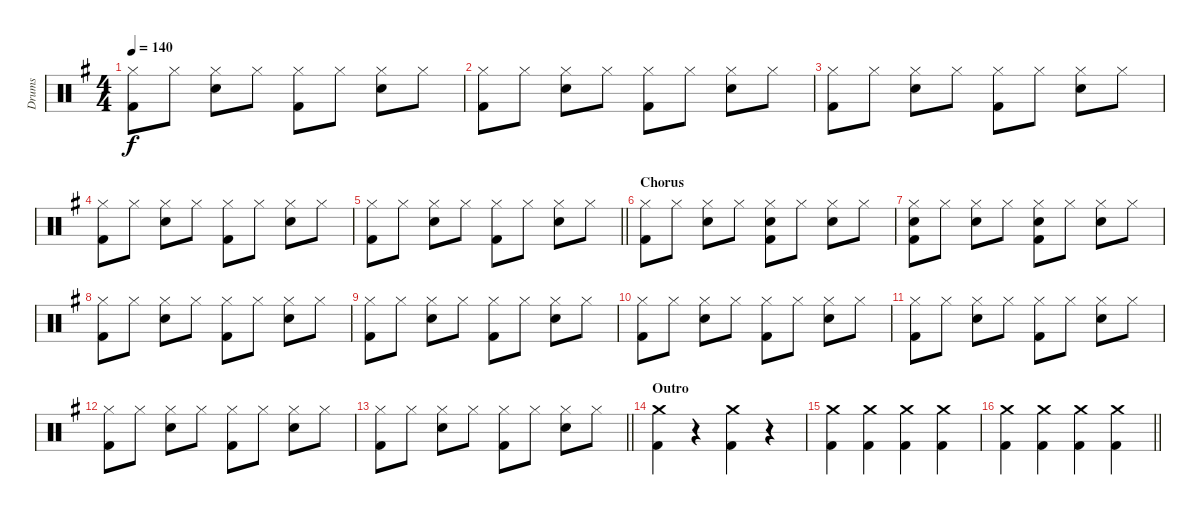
\track ("Drums" "Drums") {instrument percussion}
\staff {score}
\articulation defaults
\ts (4 4)
\tempo 140
\clef neutral
\ks g
("Hi-Hat (closed)" "Kick (hit) 2").8{dy f} "Hi-Hat (closed)".8 ("Hi-Hat (closed)" "Snare (hit) 2").8 "Hi-Hat (closed)".8 ("Hi-Hat (closed)" "Kick (hit) 2").8 "Hi-Hat (closed)".8 ("Hi-Hat (closed)" "Snare (hit) 2").8 "Hi-Hat (closed)".8 |
("Hi-Hat (closed)" "Kick (hit) 2").8 "Hi-Hat (closed)".8 ("Hi-Hat (closed)" "Snare (hit) 2").8 "Hi-Hat (closed)".8 ("Hi-Hat (closed)" "Kick (hit) 2").8 "Hi-Hat (closed)".8 ("Hi-Hat (closed)" "Snare (hit) 2").8 "Hi-Hat (closed)".8 |
("Hi-Hat (closed)" "Kick (hit) 2").8 "Hi-Hat (closed)".8 ("Hi-Hat (closed)" "Snare (hit) 2").8 "Hi-Hat (closed)".8 ("Hi-Hat (closed)" "Kick (hit) 2").8 "Hi-Hat (closed)".8 ("Hi-Hat (closed)" "Snare (hit) 2").8 "Hi-Hat (closed)".8 |
("Hi-Hat (closed)" "Kick (hit) 2").8 "Hi-Hat (closed)".8 ("Hi-Hat (closed)" "Snare (hit) 2").8 "Hi-Hat (closed)".8 ("Hi-Hat (closed)" "Kick (hit) 2").8 "Hi-Hat (closed)".8 ("Hi-Hat (closed)" "Snare (hit) 2").8 "Hi-Hat (closed)".8 |
\barLineRight lightlight
("Hi-Hat (closed)" "Kick (hit) 2").8 "Hi-Hat (closed)".8 ("Hi-Hat (closed)" "Snare (hit) 2").8 "Hi-Hat (closed)".8 ("Hi-Hat (closed)" "Kick (hit) 2").8 "Hi-Hat (closed)".8 ("Hi-Hat (closed)" "Snare (hit) 2").8 "Hi-Hat (closed)".8 |
\section ("" "Chorus")
("Hi-Hat (closed)" "Kick (hit) 2").8 "Hi-Hat (closed)".8 ("Hi-Hat (closed)" "Snare (hit) 2").8 "Hi-Hat (closed)".8 ("Hi-Hat (closed)" "Snare (hit) 2" "Kick (hit) 2").8 "Hi-Hat (closed)".8 ("Hi-Hat (closed)" "Snare (hit) 2").8 "Hi-Hat (closed)".8 |
("Hi-Hat (closed)" "Snare (hit) 2" "Kick (hit) 2").8 "Hi-Hat (closed)".8 ("Hi-Hat (closed)" "Snare (hit) 2").8 "Hi-Hat (closed)".8 ("Hi-Hat (closed)" "Snare (hit) 2" "Kick (hit) 2").8 "Hi-Hat (closed)".8 ("Hi-Hat (closed)" "Snare (hit) 2").8 "Hi-Hat (closed)".8 |
("Hi-Hat (closed)" "Kick (hit) 2").8 "Hi-Hat (closed)".8 ("Hi-Hat (closed)" "Snare (hit) 2").8 "Hi-Hat (closed)".8 ("Hi-Hat (closed)" "Kick (hit) 2").8 "Hi-Hat (closed)".8 ("Hi-Hat (closed)" "Snare (hit) 2").8 "Hi-Hat (closed)".8 |
("Hi-Hat (closed)" "Kick (hit) 2").8 "Hi-Hat (closed)".8 ("Hi-Hat (closed)" "Snare (hit) 2").8 "Hi-Hat (closed)".8 ("Hi-Hat (closed)" "Kick (hit) 2").8 "Hi-Hat (closed)".8 ("Hi-Hat (closed)" "Snare (hit) 2").8 "Hi-Hat (closed)".8 |
("Hi-Hat (closed)" "Kick (hit) 2").8 "Hi-Hat (closed)".8 ("Hi-Hat (closed)" "Snare (hit) 2").8 "Hi-Hat (closed)".8 ("Hi-Hat (closed)" "Kick (hit) 2").8 "Hi-Hat (closed)".8 ("Hi-Hat (closed)" "Snare (hit) 2").8 "Hi-Hat (closed)".8 |
("Hi-Hat (closed)" "Kick (hit) 2").8 "Hi-Hat (closed)".8 ("Hi-Hat (closed)" "Snare (hit) 2").8 "Hi-Hat (closed)".8 ("Hi-Hat (closed)" "Kick (hit) 2").8 "Hi-Hat (closed)".8 ("Hi-Hat (closed)" "Snare (hit) 2").8 "Hi-Hat (closed)".8 |
("Hi-Hat (closed)" "Kick (hit) 2").8 "Hi-Hat (closed)".8 ("Hi-Hat (closed)" "Snare (hit) 2").8 "Hi-Hat (closed)".8 ("Hi-Hat (closed)" "Kick (hit) 2").8 "Hi-Hat (closed)".8 ("Hi-Hat (closed)" "Snare (hit) 2").8 "Hi-Hat (closed)".8 |
\barLineRight lightlight
("Hi-Hat (closed)" "Kick (hit) 2").8 "Hi-Hat (closed)".8 ("Hi-Hat (closed)" "Snare (hit) 2").8 "Hi-Hat (closed)".8 ("Hi-Hat (closed)" "Kick (hit) 2").8 "Hi-Hat (closed)".8 ("Hi-Hat (closed)" "Snare (hit) 2").8 "Hi-Hat (closed)".8 |
\section ("" "Outro")
("Crash medium (hit)" "Kick (hit) 2").4 r.4 ("Crash medium (hit)" "Kick (hit) 2").4 r.4 |
("Crash medium (hit)" "Kick (hit) 2").4 ("Crash medium (hit)" "Kick (hit) 2").4 ("Crash medium (hit)" "Kick (hit) 2").4 ("Crash medium (hit)" "Kick (hit) 2").4 |
\barLineRight lightlight
("Crash medium (hit)" "Kick (hit) 2").4 ("Crash medium (hit)" "Kick (hit) 2").4 ("Crash medium (hit)" "Kick (hit) 2").4 ("Crash medium (hit)" "Kick (hit) 2").4
